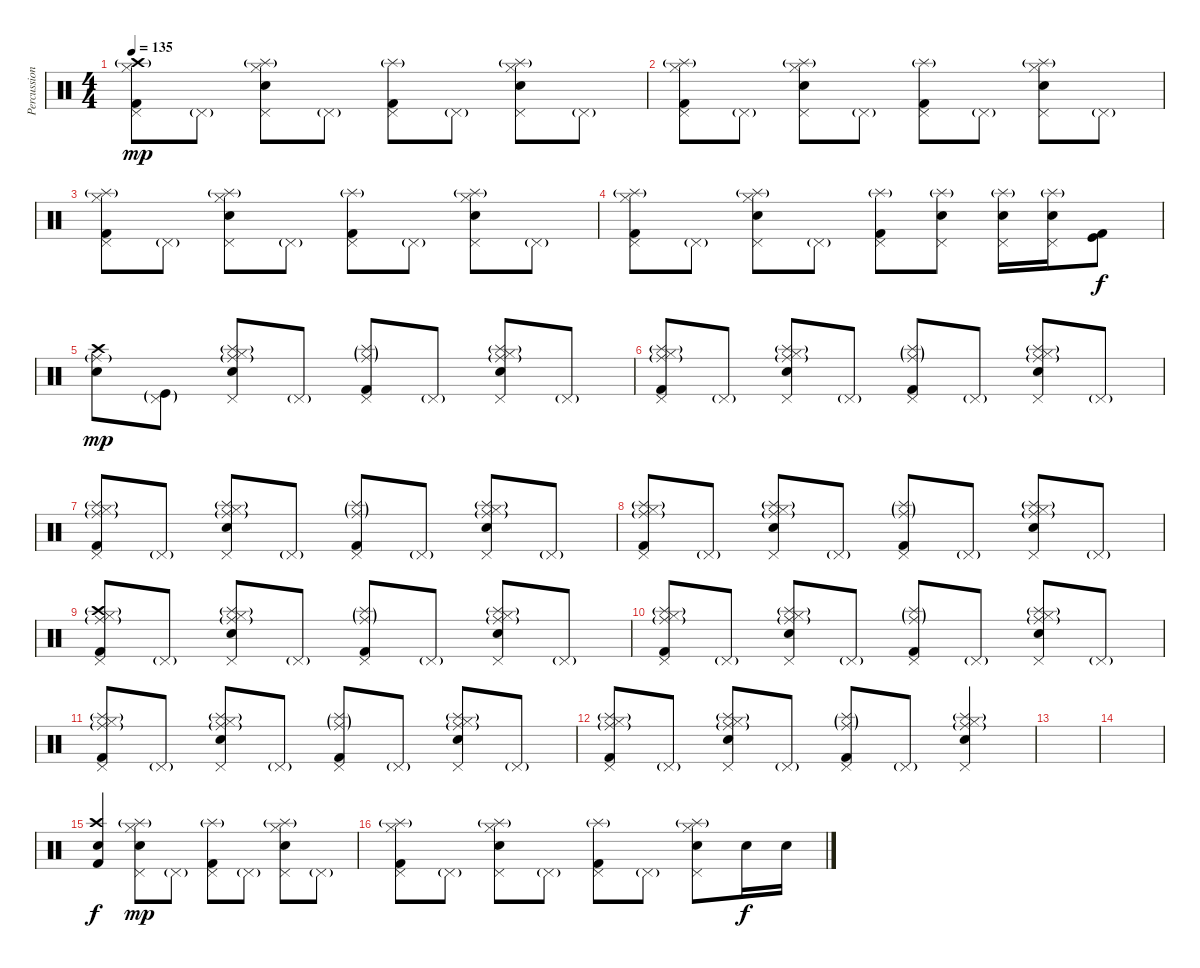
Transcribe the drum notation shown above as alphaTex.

\track ("Percussion" "Percussion") {instrument percussion}
\staff {score}
\articulation defaults
\ts (4 4)
\tempo 135
\clef neutral
\ks c
("Pedal Hi-Hat (hit)" "Hi-Hat (closed)" "Kick (hit) 2" "Crash high (hit)"{g}).8{dy mp} "Pedal Hi-Hat (hit)"{g}.8 ("Pedal Hi-Hat (hit)" "Hi-Hat (closed)" "Electric Snare (hit)" "Splash (hit)"{g}).8 "Pedal Hi-Hat (hit)"{g}.8 ("Pedal Hi-Hat (hit)" "Kick (hit) 2" "Splash (hit)"{g}).8 "Pedal Hi-Hat (hit)"{g}.8 ("Pedal Hi-Hat (hit)" "Hi-Hat (closed)" "Electric Snare (hit)" "Splash (hit)"{g}).8 "Pedal Hi-Hat (hit)"{g}.8 |
("Pedal Hi-Hat (hit)" "Hi-Hat (closed)" "Kick (hit) 2" "Splash (hit)"{g}).8 "Pedal Hi-Hat (hit)"{g}.8 ("Pedal Hi-Hat (hit)" "Hi-Hat (closed)" "Electric Snare (hit)" "Splash (hit)"{g}).8 "Pedal Hi-Hat (hit)"{g}.8 ("Pedal Hi-Hat (hit)" "Kick (hit) 2" "Splash (hit)"{g}).8 "Pedal Hi-Hat (hit)"{g}.8 ("Pedal Hi-Hat (hit)" "Hi-Hat (closed)" "Electric Snare (hit)" "Splash (hit)"{g}).8 "Pedal Hi-Hat (hit)"{g}.8 |
("Pedal Hi-Hat (hit)" "Hi-Hat (closed)" "Kick (hit) 2" "Splash (hit)"{g}).8 "Pedal Hi-Hat (hit)"{g}.8 ("Pedal Hi-Hat (hit)" "Hi-Hat (closed)" "Electric Snare (hit)" "Splash (hit)"{g}).8 "Pedal Hi-Hat (hit)"{g}.8 ("Pedal Hi-Hat (hit)" "Kick (hit) 2" "Splash (hit)"{g}).8 "Pedal Hi-Hat (hit)"{g}.8 ("Pedal Hi-Hat (hit)" "Hi-Hat (closed)" "Electric Snare (hit)" "Splash (hit)"{g}).8 "Pedal Hi-Hat (hit)"{g}.8 |
("Pedal Hi-Hat (hit)" "Hi-Hat (closed)" "Kick (hit) 2" "Splash (hit)"{g}).8 "Pedal Hi-Hat (hit)"{g}.8 ("Pedal Hi-Hat (hit)" "Hi-Hat (closed)" "Electric Snare (hit)" "Splash (hit)"{g}).8 "Pedal Hi-Hat (hit)"{g}.8 ("Pedal Hi-Hat (hit)" "Kick (hit) 2" "Splash (hit)"{g}).8 ("Pedal Hi-Hat (hit)" "Electric Snare (hit)" "Splash (hit)"{g}).8 ("Pedal Hi-Hat (hit)" "Electric Snare (hit)" "Splash (hit)"{g}).16 ("Pedal Hi-Hat (hit)" "Electric Snare (hit)" "Splash (hit)"{g}).16 ("Kick (hit)" "Kick (hit) 2").8{dy f} |
("Crash high (hit)" "Electric Snare (hit)" "Ride (middle)"{g}).8{dy mp} ("Pedal Hi-Hat (hit)"{g} "Kick (hit)"{g}).8 ("Pedal Hi-Hat (hit)" "Hi-Hat (closed)" "Electric Snare (hit)" "Splash (hit)"{g} "Ride (middle)"{g}).8 "Pedal Hi-Hat (hit)"{g}.8 ("Pedal Hi-Hat (hit)" "Kick (hit) 2" "Splash (hit)"{g} "Ride (middle)"{g}).8 "Pedal Hi-Hat (hit)"{g}.8 ("Pedal Hi-Hat (hit)" "Hi-Hat (closed)" "Electric Snare (hit)" "Splash (hit)"{g} "Ride (middle)"{g}).8 "Pedal Hi-Hat (hit)"{g}.8 |
("Pedal Hi-Hat (hit)" "Hi-Hat (closed)" "Kick (hit) 2" "Splash (hit)"{g} "Ride (middle)"{g}).8 "Pedal Hi-Hat (hit)"{g}.8 ("Pedal Hi-Hat (hit)" "Hi-Hat (closed)" "Electric Snare (hit)" "Splash (hit)"{g} "Ride (middle)"{g}).8 "Pedal Hi-Hat (hit)"{g}.8 ("Pedal Hi-Hat (hit)" "Kick (hit) 2" "Splash (hit)"{g} "Ride (middle)"{g}).8 "Pedal Hi-Hat (hit)"{g}.8 ("Pedal Hi-Hat (hit)" "Hi-Hat (closed)" "Electric Snare (hit)" "Splash (hit)"{g} "Ride (middle)"{g}).8 "Pedal Hi-Hat (hit)"{g}.8 |
("Pedal Hi-Hat (hit)" "Hi-Hat (closed)" "Kick (hit) 2" "Splash (hit)"{g} "Ride (middle)"{g}).8 "Pedal Hi-Hat (hit)"{g}.8 ("Pedal Hi-Hat (hit)" "Hi-Hat (closed)" "Electric Snare (hit)" "Splash (hit)"{g} "Ride (middle)"{g}).8 "Pedal Hi-Hat (hit)"{g}.8 ("Pedal Hi-Hat (hit)" "Kick (hit) 2" "Splash (hit)"{g} "Ride (middle)"{g}).8 "Pedal Hi-Hat (hit)"{g}.8 ("Pedal Hi-Hat (hit)" "Hi-Hat (closed)" "Electric Snare (hit)" "Splash (hit)"{g} "Ride (middle)"{g}).8 "Pedal Hi-Hat (hit)"{g}.8 |
("Pedal Hi-Hat (hit)" "Hi-Hat (closed)" "Kick (hit) 2" "Splash (hit)"{g} "Ride (middle)"{g}).8 "Pedal Hi-Hat (hit)"{g}.8 ("Pedal Hi-Hat (hit)" "Hi-Hat (closed)" "Electric Snare (hit)" "Splash (hit)"{g} "Ride (middle)"{g}).8 "Pedal Hi-Hat (hit)"{g}.8 ("Pedal Hi-Hat (hit)" "Kick (hit) 2" "Splash (hit)"{g} "Ride (middle)"{g}).8 "Pedal Hi-Hat (hit)"{g}.8 ("Pedal Hi-Hat (hit)" "Hi-Hat (closed)" "Electric Snare (hit)" "Splash (hit)"{g} "Ride (middle)"{g}).8 "Pedal Hi-Hat (hit)"{g}.8 |
("Pedal Hi-Hat (hit)" "Hi-Hat (closed)" "Kick (hit) 2" "Crash high (hit)"{g} "Ride (middle)"{g}).8 "Pedal Hi-Hat (hit)"{g}.8 ("Pedal Hi-Hat (hit)" "Hi-Hat (closed)" "Electric Snare (hit)" "Splash (hit)"{g} "Ride (middle)"{g}).8 "Pedal Hi-Hat (hit)"{g}.8 ("Pedal Hi-Hat (hit)" "Kick (hit) 2" "Splash (hit)"{g} "Ride (middle)"{g}).8 "Pedal Hi-Hat (hit)"{g}.8 ("Pedal Hi-Hat (hit)" "Hi-Hat (closed)" "Electric Snare (hit)" "Splash (hit)"{g} "Ride (middle)"{g}).8 "Pedal Hi-Hat (hit)"{g}.8 |
("Pedal Hi-Hat (hit)" "Hi-Hat (closed)" "Kick (hit) 2" "Splash (hit)"{g} "Ride (middle)"{g}).8 "Pedal Hi-Hat (hit)"{g}.8 ("Pedal Hi-Hat (hit)" "Hi-Hat (closed)" "Electric Snare (hit)" "Splash (hit)"{g} "Ride (middle)"{g}).8 "Pedal Hi-Hat (hit)"{g}.8 ("Pedal Hi-Hat (hit)" "Kick (hit) 2" "Splash (hit)"{g} "Ride (middle)"{g}).8 "Pedal Hi-Hat (hit)"{g}.8 ("Pedal Hi-Hat (hit)" "Hi-Hat (closed)" "Electric Snare (hit)" "Splash (hit)"{g} "Ride (middle)"{g}).8 "Pedal Hi-Hat (hit)"{g}.8 |
("Pedal Hi-Hat (hit)" "Hi-Hat (closed)" "Kick (hit) 2" "Splash (hit)"{g} "Ride (middle)"{g}).8 "Pedal Hi-Hat (hit)"{g}.8 ("Pedal Hi-Hat (hit)" "Hi-Hat (closed)" "Electric Snare (hit)" "Splash (hit)"{g} "Ride (middle)"{g}).8 "Pedal Hi-Hat (hit)"{g}.8 ("Pedal Hi-Hat (hit)" "Kick (hit) 2" "Splash (hit)"{g} "Ride (middle)"{g}).8 "Pedal Hi-Hat (hit)"{g}.8 ("Pedal Hi-Hat (hit)" "Hi-Hat (closed)" "Electric Snare (hit)" "Splash (hit)"{g} "Ride (middle)"{g}).8 "Pedal Hi-Hat (hit)"{g}.8 |
("Pedal Hi-Hat (hit)" "Hi-Hat (closed)" "Kick (hit) 2" "Splash (hit)"{g} "Ride (middle)"{g}).8 "Pedal Hi-Hat (hit)"{g}.8 ("Pedal Hi-Hat (hit)" "Hi-Hat (closed)" "Electric Snare (hit)" "Splash (hit)"{g} "Ride (middle)"{g}).8 "Pedal Hi-Hat (hit)"{g}.8 ("Pedal Hi-Hat (hit)" "Kick (hit) 2" "Splash (hit)"{g} "Ride (middle)"{g}).8 "Pedal Hi-Hat (hit)"{g}.8 ("Pedal Hi-Hat (hit)" "Hi-Hat (closed)" "Electric Snare (hit)" "Splash (hit)"{g} "Ride (middle)"{g}).4 |
|
|
("Crash high (hit)" "Electric Snare (hit)" "Kick (hit) 2").4{dy f} ("Pedal Hi-Hat (hit)" "Hi-Hat (closed)" "Electric Snare (hit)" "Splash (hit)"{g}).8{dy mp} "Pedal Hi-Hat (hit)"{g}.8 ("Pedal Hi-Hat (hit)" "Kick (hit) 2" "Splash (hit)"{g}).8 "Pedal Hi-Hat (hit)"{g}.8 ("Pedal Hi-Hat (hit)" "Hi-Hat (closed)" "Electric Snare (hit)" "Splash (hit)"{g}).8 "Pedal Hi-Hat (hit)"{g}.8 |
("Pedal Hi-Hat (hit)" "Hi-Hat (closed)" "Kick (hit) 2" "Splash (hit)"{g}).8 "Pedal Hi-Hat (hit)"{g}.8 ("Pedal Hi-Hat (hit)" "Hi-Hat (closed)" "Electric Snare (hit)" "Splash (hit)"{g}).8 "Pedal Hi-Hat (hit)"{g}.8 ("Pedal Hi-Hat (hit)" "Kick (hit) 2" "Splash (hit)"{g}).8 "Pedal Hi-Hat (hit)"{g}.8 ("Pedal Hi-Hat (hit)" "Hi-Hat (closed)" "Electric Snare (hit)" "Splash (hit)"{g}).8 "Electric Snare (hit)".16{dy f} "Electric Snare (hit)".16
